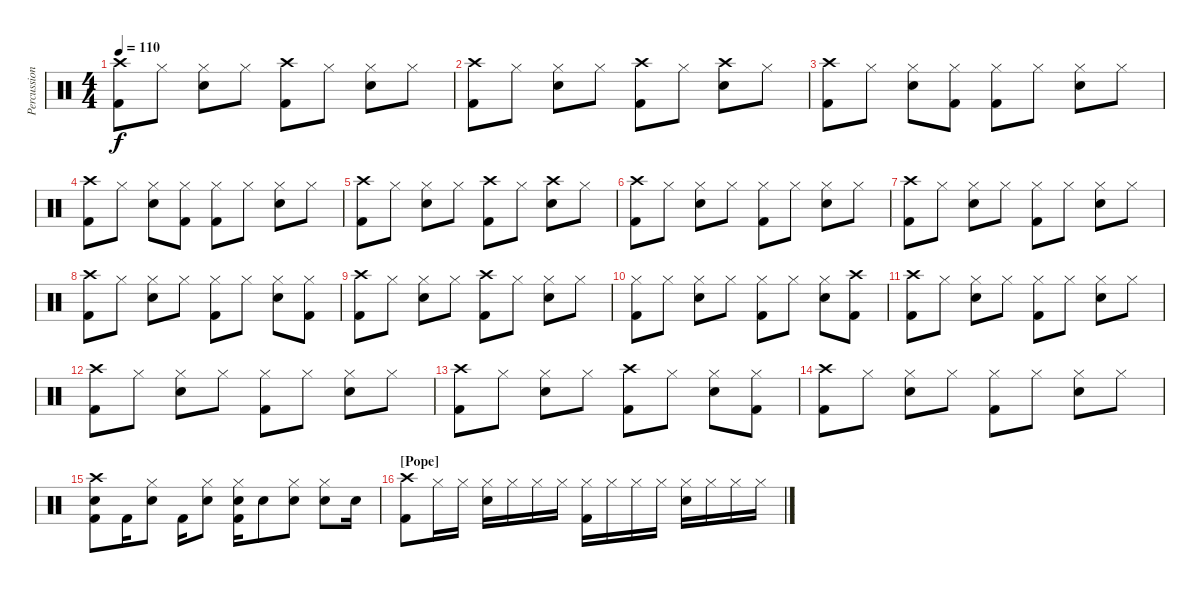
\track ("Percussions" "Percussion") {instrument percussion}
\staff {score}
\articulation defaults
\ts (4 4)
\tempo 110
\clef neutral
\ks c
("Crash high (hit)" "Kick (hit) 2").8{dy f} "Hi-Hat (closed)".8 ("Hi-Hat (closed)" "Electric Snare (hit)").8 "Hi-Hat (closed)".8 ("Crash high (hit)" "Kick (hit) 2").8 "Hi-Hat (closed)".8 ("Hi-Hat (closed)" "Electric Snare (hit)").8 "Hi-Hat (closed)".8 |
("Crash high (hit)" "Kick (hit) 2").8 "Hi-Hat (closed)".8 ("Hi-Hat (closed)" "Electric Snare (hit)").8 "Hi-Hat (closed)".8 ("Crash high (hit)" "Kick (hit) 2").8 "Hi-Hat (closed)".8 ("Crash high (hit)" "Electric Snare (hit)").8 "Hi-Hat (closed)".8 |
("Crash high (hit)" "Kick (hit) 2").8 "Hi-Hat (closed)".8 ("Hi-Hat (closed)" "Electric Snare (hit)").8 ("Hi-Hat (closed)" "Kick (hit) 2").8 ("Hi-Hat (closed)" "Kick (hit) 2").8 "Hi-Hat (closed)".8 ("Hi-Hat (closed)" "Electric Snare (hit)").8 "Hi-Hat (closed)".8 |
("Crash high (hit)" "Kick (hit) 2").8 "Hi-Hat (closed)".8 ("Hi-Hat (closed)" "Electric Snare (hit)").8 ("Hi-Hat (closed)" "Kick (hit) 2").8 ("Hi-Hat (closed)" "Kick (hit) 2").8 "Hi-Hat (closed)".8 ("Hi-Hat (closed)" "Electric Snare (hit)").8 "Hi-Hat (closed)".8 |
("Crash high (hit)" "Kick (hit) 2").8 "Hi-Hat (closed)".8 ("Hi-Hat (closed)" "Electric Snare (hit)").8 "Hi-Hat (closed)".8 ("Crash high (hit)" "Kick (hit) 2").8 "Hi-Hat (closed)".8 ("Crash high (hit)" "Electric Snare (hit)").8 "Hi-Hat (closed)".8 |
("Crash high (hit)" "Kick (hit) 2").8 "Hi-Hat (closed)".8 ("Hi-Hat (closed)" "Electric Snare (hit)").8 "Hi-Hat (closed)".8 ("Hi-Hat (closed)" "Kick (hit) 2").8 "Hi-Hat (closed)".8 ("Hi-Hat (closed)" "Electric Snare (hit)").8 "Hi-Hat (closed)".8 |
("Crash high (hit)" "Kick (hit) 2").8 "Hi-Hat (closed)".8 ("Hi-Hat (closed)" "Electric Snare (hit)").8 "Hi-Hat (closed)".8 ("Hi-Hat (closed)" "Kick (hit) 2").8 "Hi-Hat (closed)".8 ("Hi-Hat (closed)" "Electric Snare (hit)").8 "Hi-Hat (closed)".8 |
("Crash high (hit)" "Kick (hit) 2").8 "Hi-Hat (closed)".8 ("Hi-Hat (closed)" "Electric Snare (hit)").8 "Hi-Hat (closed)".8 ("Hi-Hat (closed)" "Kick (hit) 2").8 "Hi-Hat (closed)".8 ("Hi-Hat (closed)" "Electric Snare (hit)").8 ("Hi-Hat (closed)" "Kick (hit) 2").8 |
("Crash high (hit)" "Kick (hit) 2").8 "Hi-Hat (closed)".8 ("Hi-Hat (closed)" "Electric Snare (hit)").8 "Hi-Hat (closed)".8 ("Crash high (hit)" "Kick (hit) 2").8 "Hi-Hat (closed)".8 ("Hi-Hat (closed)" "Electric Snare (hit)").8 "Hi-Hat (closed)".8 |
("Hi-Hat (closed)" "Kick (hit) 2").8 "Hi-Hat (closed)".8 ("Hi-Hat (closed)" "Electric Snare (hit)").8 "Hi-Hat (closed)".8 ("Hi-Hat (closed)" "Kick (hit) 2").8 "Hi-Hat (closed)".8 ("Hi-Hat (closed)" "Electric Snare (hit)").8 ("Crash high (hit)" "Kick (hit) 2").8 |
("Crash high (hit)" "Kick (hit) 2").8 "Hi-Hat (closed)".8 ("Hi-Hat (closed)" "Electric Snare (hit)").8 "Hi-Hat (closed)".8 ("Hi-Hat (closed)" "Kick (hit) 2").8 "Hi-Hat (closed)".8 ("Hi-Hat (closed)" "Electric Snare (hit)").8 "Hi-Hat (closed)".8 |
("Crash high (hit)" "Kick (hit) 2").8 "Hi-Hat (closed)".8 ("Hi-Hat (closed)" "Electric Snare (hit)").8 "Hi-Hat (closed)".8 ("Hi-Hat (closed)" "Kick (hit) 2").8 "Hi-Hat (closed)".8 ("Hi-Hat (closed)" "Electric Snare (hit)").8 "Hi-Hat (closed)".8 |
("Crash high (hit)" "Kick (hit) 2").8 "Hi-Hat (closed)".8 ("Hi-Hat (closed)" "Electric Snare (hit)").8 "Hi-Hat (closed)".8 ("Crash high (hit)" "Kick (hit) 2").8 "Hi-Hat (closed)".8 ("Hi-Hat (closed)" "Electric Snare (hit)").8 ("Hi-Hat (closed)" "Kick (hit) 2").8 |
("Crash high (hit)" "Kick (hit) 2").8 "Hi-Hat (closed)".8 ("Hi-Hat (closed)" "Electric Snare (hit)").8 "Hi-Hat (closed)".8 ("Hi-Hat (closed)" "Kick (hit) 2").8 "Hi-Hat (closed)".8 ("Hi-Hat (closed)" "Electric Snare (hit)").8 "Hi-Hat (closed)".8 |
("Crash high (hit)" "Electric Snare (hit)" "Kick (hit) 2").8 "Kick (hit) 2".16 ("Hi-Hat (closed)" "Electric Snare (hit)").8 "Kick (hit) 2".16 ("Hi-Hat (closed)" "Electric Snare (hit)").8 ("Hi-Hat (closed)" "Electric Snare (hit)" "Kick (hit) 2").16 "Electric Snare (hit)".8 ("Hi-Hat (closed)" "Electric Snare (hit)").8 ("Hi-Hat (closed)" "Electric Snare (hit)").8 "Electric Snare (hit)".16 |
\section ("" "[Pope]")
("Crash high (hit)" "Kick (hit) 2").8 "Hi-Hat (closed)".16 "Hi-Hat (closed)".16 ("Hi-Hat (closed)" "Electric Snare (hit)").16 "Hi-Hat (closed)".16 "Hi-Hat (closed)".16 "Hi-Hat (closed)".16 ("Hi-Hat (closed)" "Kick (hit) 2").16 "Hi-Hat (closed)".16 "Hi-Hat (closed)".16 "Hi-Hat (closed)".16 ("Hi-Hat (closed)" "Electric Snare (hit)").16 "Hi-Hat (closed)".16 "Hi-Hat (closed)".16 "Hi-Hat (closed)".16
